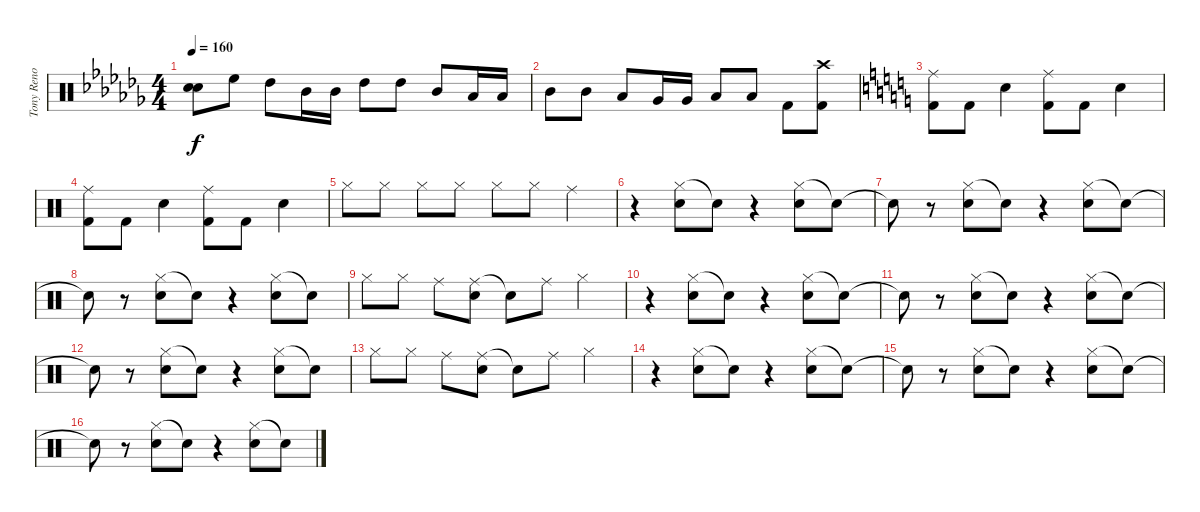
\track ("Tony Reno" "Tony Reno") {instrument percussion}
\staff {score}
\articulation defaults
\ts (4 4)
\tempo 160
\clef neutral
\ks cb
("Snare (hit)"{t} "Snare (hit)"{t}).8{dy f} "High Floor Tom (hit)".8 "High Tom (hit)".8 "Mid Tom (hit)".16 "Mid Tom (hit)".16 "High Tom (hit)".8 "High Tom (hit)".8 "Mid Tom (hit)".8 "Low Tom (hit)".16 "Low Tom (hit)".16 |
"Mid Tom (hit)".8 "Mid Tom (hit)".8 "Low Tom (hit)".8 "Very Low Tom (hit)".16 "Very Low Tom (hit)".16 "Low Tom (hit)".8 "Low Tom (hit)".8 "Kick (hit) 2".8 ("Kick (hit) 2" "Crash high (hit)").8 |
\ks c
("Ride (middle)" "Kick (hit) 2").8 "Kick (hit) 2".8 "Snare (hit) 2".4 ("Ride (middle)" "Kick (hit) 2").8 "Kick (hit) 2".8 "Snare (hit) 2".4 |
("Ride (middle)" "Kick (hit) 2").8 "Kick (hit) 2".8 "Snare (hit) 2".4 ("Ride (middle)" "Kick (hit) 2").8 "Kick (hit) 2".8 "Snare (hit) 2".4 |
"Hi-Hat (closed)".8 "Hi-Hat (closed)".8 "Hi-Hat (closed)".8 "Hi-Hat (closed)".8 "Hi-Hat (closed)".8 "Hi-Hat (closed)".8 "Ride (middle)".4 |
r.4 ("Hi-Hat (closed)" "Snare (hit) 2").8 "Snare (hit)"{t}.8 r.4 ("Hi-Hat (closed)" "Snare (hit) 2").8 "Snare (hit)"{t}.8 |
"Snare (hit)"{t}.8 r.8 ("Hi-Hat (closed)" "Snare (hit) 2").8 "Snare (hit)"{t}.8 r.4 ("Hi-Hat (closed)" "Snare (hit) 2").8 "Snare (hit)"{t}.8 |
"Snare (hit)"{t}.8 r.8 ("Hi-Hat (closed)" "Snare (hit) 2").8 "Snare (hit)"{t}.8 r.4 ("Hi-Hat (closed)" "Snare (hit) 2").8 "Snare (hit)"{t}.8 |
"Hi-Hat (closed)".8 "Hi-Hat (closed)".8 "Ride (middle)".8 ("Ride (middle)" "Snare (hit) 2").8 "Snare (hit)"{t}.8 "Ride (middle)".8 "Hi-Hat (closed)".4 |
r.4 ("Hi-Hat (closed)" "Snare (hit) 2").8 "Snare (hit)"{t}.8 r.4 ("Hi-Hat (closed)" "Snare (hit) 2").8 "Snare (hit)"{t}.8 |
"Snare (hit)"{t}.8 r.8 ("Hi-Hat (closed)" "Snare (hit) 2").8 "Snare (hit)"{t}.8 r.4 ("Hi-Hat (closed)" "Snare (hit) 2").8 "Snare (hit)"{t}.8 |
"Snare (hit)"{t}.8 r.8 ("Hi-Hat (closed)" "Snare (hit) 2").8 "Snare (hit)"{t}.8 r.4 ("Hi-Hat (closed)" "Snare (hit) 2").8 "Snare (hit)"{t}.8 |
"Hi-Hat (closed)".8 "Hi-Hat (closed)".8 "Ride (middle)".8 ("Ride (middle)" "Snare (hit) 2").8 "Snare (hit)"{t}.8 "Ride (middle)".8 "Hi-Hat (closed)".4 |
r.4 ("Hi-Hat (closed)" "Snare (hit) 2").8 "Snare (hit)"{t}.8 r.4 ("Hi-Hat (closed)" "Snare (hit) 2").8 "Snare (hit)"{t}.8 |
"Snare (hit)"{t}.8 r.8 ("Hi-Hat (closed)" "Snare (hit) 2").8 "Snare (hit)"{t}.8 r.4 ("Hi-Hat (closed)" "Snare (hit) 2").8 "Snare (hit)"{t}.8 |
"Snare (hit)"{t}.8 r.8 ("Hi-Hat (closed)" "Snare (hit) 2").8 "Snare (hit)"{t}.8 r.4 ("Hi-Hat (closed)" "Snare (hit) 2").8 "Snare (hit)"{t}.8
